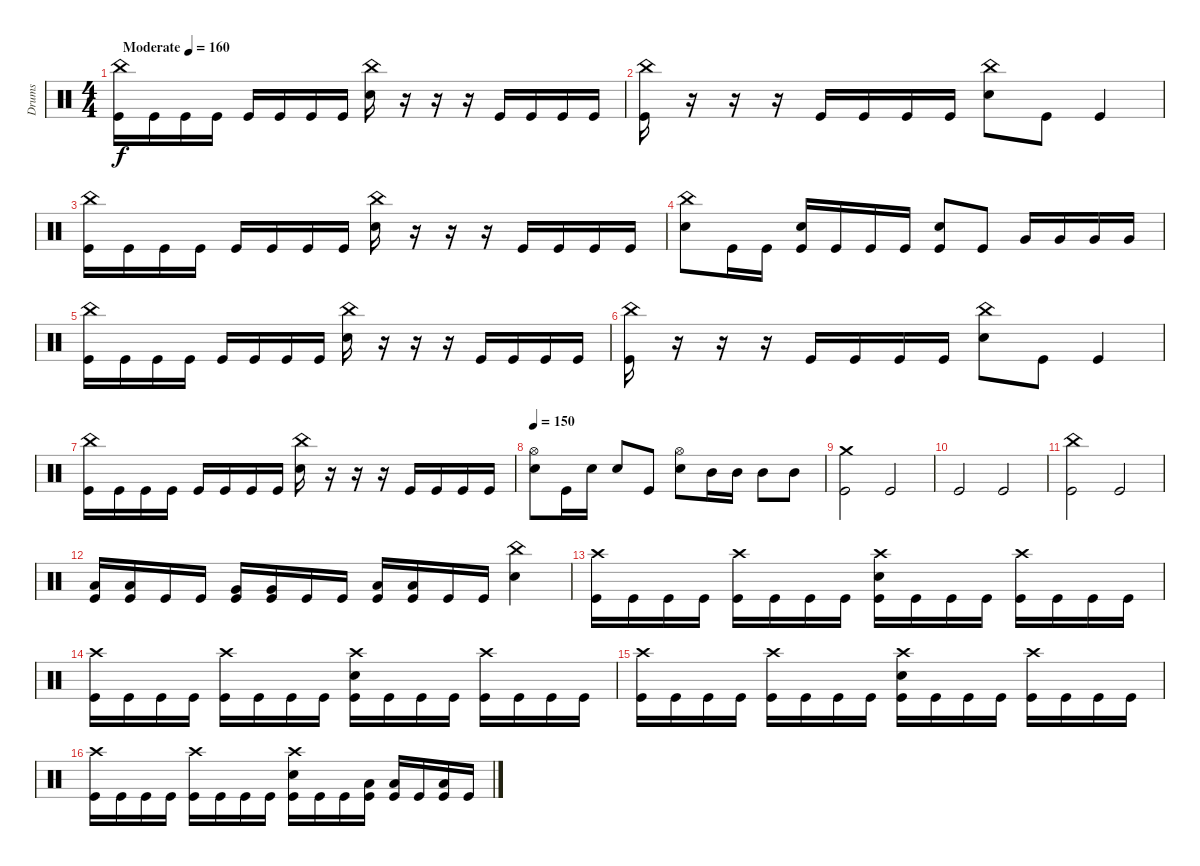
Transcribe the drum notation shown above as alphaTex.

\track ("Drums" "Drums") {instrument percussion}
\staff {score}
\articulation defaults
\ts (4 4)
\tempo (160 "Moderate")
\clef neutral
\ks c
("China (hit)" "Kick (hit)").16{dy f} "Kick (hit)".16 "Kick (hit)".16 "Kick (hit)".16 "Kick (hit)".16 "Kick (hit)".16 "Kick (hit)".16 "Kick (hit)".16 ("China (hit)" "Electric Snare (hit)").16 r.16 r.16 r.16 "Kick (hit)".16 "Kick (hit)".16 "Kick (hit)".16 "Kick (hit)".16 |
("China (hit)" "Kick (hit)").16 r.16 r.16 r.16 "Kick (hit)".16 "Kick (hit)".16 "Kick (hit)".16 "Kick (hit)".16 ("China (hit)" "Electric Snare (hit)").8 "Kick (hit)".8 "Kick (hit)".4 |
("China (hit)" "Kick (hit)").16 "Kick (hit)".16 "Kick (hit)".16 "Kick (hit)".16 "Kick (hit)".16 "Kick (hit)".16 "Kick (hit)".16 "Kick (hit)".16 ("China (hit)" "Electric Snare (hit)").16 r.16 r.16 r.16 "Kick (hit)".16 "Kick (hit)".16 "Kick (hit)".16 "Kick (hit)".16 |
("China (hit)" "Electric Snare (hit)").8 "Kick (hit)".16 "Kick (hit)".16 ("Electric Snare (hit)" "Kick (hit)").16 "Kick (hit)".16 "Kick (hit)".16 "Kick (hit)".16 ("Electric Snare (hit)" "Kick (hit)").8 "Kick (hit)".8 "Very Low Tom (hit)".16 "Very Low Tom (hit)".16 "Very Low Tom (hit)".16 "Very Low Tom (hit)".16 |
("China (hit)" "Kick (hit)").16 "Kick (hit)".16 "Kick (hit)".16 "Kick (hit)".16 "Kick (hit)".16 "Kick (hit)".16 "Kick (hit)".16 "Kick (hit)".16 ("China (hit)" "Electric Snare (hit)").16 r.16 r.16 r.16 "Kick (hit)".16 "Kick (hit)".16 "Kick (hit)".16 "Kick (hit)".16 |
("China (hit)" "Kick (hit)").16 r.16 r.16 r.16 "Kick (hit)".16 "Kick (hit)".16 "Kick (hit)".16 "Kick (hit)".16 ("China (hit)" "Electric Snare (hit)").8 "Kick (hit)".8 "Kick (hit)".4 |
("China (hit)" "Kick (hit)").16 "Kick (hit)".16 "Kick (hit)".16 "Kick (hit)".16 "Kick (hit)".16 "Kick (hit)".16 "Kick (hit)".16 "Kick (hit)".16 ("China (hit)" "Electric Snare (hit)").16 r.16 r.16 r.16 "Kick (hit)".16 "Kick (hit)".16 "Kick (hit)".16 "Kick (hit)".16 |
\tempo 150
("Hi-Hat (open)" "Electric Snare (hit)").8 "Kick (hit)".16 "Electric Snare (hit)".16 "Electric Snare (hit)".8 "Kick (hit)".8 ("Hi-Hat (open)" "Electric Snare (hit)").8 "Mid Tom (hit)".16 "Mid Tom (hit)".16 "Mid Tom (hit)".8 "Mid Tom (hit)".8 |
("Crash medium (hit)" "Kick (hit)").2 "Kick (hit)".2 |
"Kick (hit)".2 "Kick (hit)".2 |
("China (hit)" "Kick (hit)").2 "Kick (hit)".2 |
("Low Tom (hit)" "Kick (hit)").16 ("Low Tom (hit)" "Kick (hit)").16 "Kick (hit)".16 "Kick (hit)".16 ("Very Low Tom (hit)" "Kick (hit)").16 ("Very Low Tom (hit)" "Kick (hit)").16 "Kick (hit)".16 "Kick (hit)".16 ("Low Floor Tom (hit)" "Kick (hit)").16 ("Low Floor Tom (hit)" "Kick (hit)").16 "Kick (hit)".16 "Kick (hit)".16 ("China (hit)" "Electric Snare (hit)").4 |
("Crash high (hit)" "Kick (hit)").16 "Kick (hit)".16 "Kick (hit)".16 "Kick (hit)".16 ("Crash high (hit)" "Kick (hit)").16 "Kick (hit)".16 "Kick (hit)".16 "Kick (hit)".16 ("Crash high (hit)" "Electric Snare (hit)" "Kick (hit)").16 "Kick (hit)".16 "Kick (hit)".16 "Kick (hit)".16 ("Crash high (hit)" "Kick (hit)").16 "Kick (hit)".16 "Kick (hit)".16 "Kick (hit)".16 |
("Crash high (hit)" "Kick (hit)").16 "Kick (hit)".16 "Kick (hit)".16 "Kick (hit)".16 ("Crash high (hit)" "Kick (hit)").16 "Kick (hit)".16 "Kick (hit)".16 "Kick (hit)".16 ("Crash high (hit)" "Electric Snare (hit)" "Kick (hit)").16 "Kick (hit)".16 "Kick (hit)".16 "Kick (hit)".16 ("Crash high (hit)" "Kick (hit)").16 "Kick (hit)".16 "Kick (hit)".16 "Kick (hit)".16 |
("Crash high (hit)" "Kick (hit)").16 "Kick (hit)".16 "Kick (hit)".16 "Kick (hit)".16 ("Crash high (hit)" "Kick (hit)").16 "Kick (hit)".16 "Kick (hit)".16 "Kick (hit)".16 ("Crash high (hit)" "Electric Snare (hit)" "Kick (hit)").16 "Kick (hit)".16 "Kick (hit)".16 "Kick (hit)".16 ("Crash high (hit)" "Kick (hit)").16 "Kick (hit)".16 "Kick (hit)".16 "Kick (hit)".16 |
("Crash high (hit)" "Kick (hit)").16 "Kick (hit)".16 "Kick (hit)".16 "Kick (hit)".16 ("Crash high (hit)" "Kick (hit)").16 "Kick (hit)".16 "Kick (hit)".16 "Kick (hit)".16 ("Crash high (hit)" "Electric Snare (hit)" "Kick (hit)").16 "Kick (hit)".16 "Kick (hit)".16 ("Low Tom (hit)" "Kick (hit)").16 ("Low Tom (hit)" "Kick (hit)").16 "Kick (hit)".16 ("Low Tom (hit)" "Kick (hit)").16 "Kick (hit)".16
